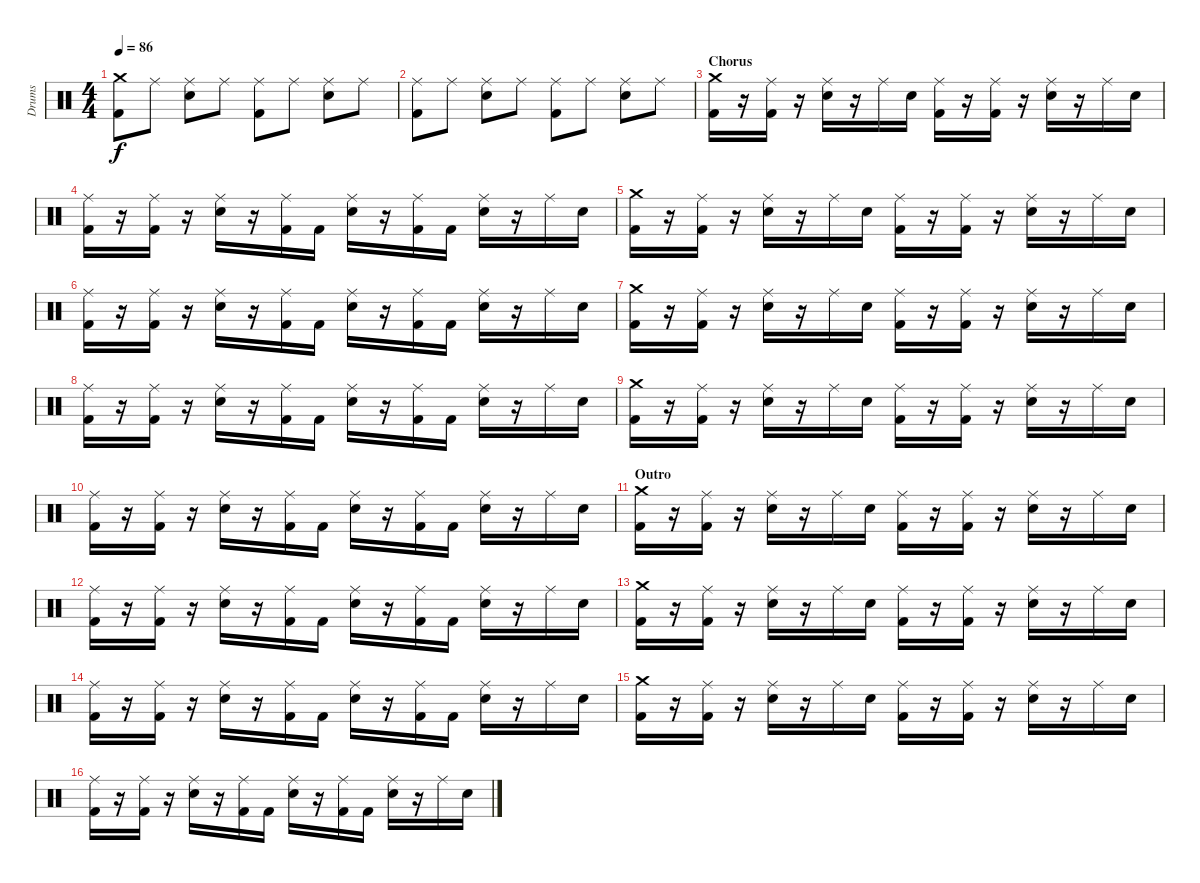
\track ("Drums" "Drums") {instrument percussion}
\staff {score}
\articulation defaults
\ts (4 4)
\tempo 86
\clef neutral
\ks c
("Crash medium (hit)" "Kick (hit) 2").8{dy f} "Ride (middle)".8 ("Ride (middle)" "Snare (hit) 2").8 "Ride (middle)".8 ("Ride (middle)" "Kick (hit) 2").8 "Ride (middle)".8 ("Ride (middle)" "Snare (hit) 2").8 "Ride (middle)".8 |
("Ride (middle)" "Kick (hit) 2").8 "Ride (middle)".8 ("Ride (middle)" "Snare (hit) 2").8 "Ride (middle)".8 ("Ride (middle)" "Kick (hit) 2").8 "Ride (middle)".8 ("Ride (middle)" "Snare (hit) 2").8 "Ride (middle)".8 |
\section ("" "Chorus")
("Crash medium (hit)" "Kick (hit) 2").16 r.16 ("Ride (middle)" "Kick (hit) 2").16 r.16 ("Ride (middle)" "Snare (hit) 2").16 r.16 "Ride (middle)".16 "Snare (hit) 2".16 ("Ride (middle)" "Kick (hit) 2").16 r.16 ("Ride (middle)" "Kick (hit) 2").16 r.16 ("Ride (middle)" "Snare (hit) 2").16 r.16 "Ride (middle)".16 "Snare (hit) 2".16 |
("Ride (middle)" "Kick (hit) 2").16 r.16 ("Ride (middle)" "Kick (hit) 2").16 r.16 ("Ride (middle)" "Snare (hit) 2").16 r.16 ("Ride (middle)" "Kick (hit) 2").16 "Kick (hit) 2".16 ("Ride (middle)" "Snare (hit) 2").16 r.16 ("Ride (middle)" "Kick (hit) 2").16 "Kick (hit) 2".16 ("Ride (middle)" "Snare (hit) 2").16 r.16 "Ride (middle)".16 "Snare (hit) 2".16 |
("Crash medium (hit)" "Kick (hit) 2").16 r.16 ("Ride (middle)" "Kick (hit) 2").16 r.16 ("Ride (middle)" "Snare (hit) 2").16 r.16 "Ride (middle)".16 "Snare (hit) 2".16 ("Ride (middle)" "Kick (hit) 2").16 r.16 ("Ride (middle)" "Kick (hit) 2").16 r.16 ("Ride (middle)" "Snare (hit) 2").16 r.16 "Ride (middle)".16 "Snare (hit) 2".16 |
("Ride (middle)" "Kick (hit) 2").16 r.16 ("Ride (middle)" "Kick (hit) 2").16 r.16 ("Ride (middle)" "Snare (hit) 2").16 r.16 ("Ride (middle)" "Kick (hit) 2").16 "Kick (hit) 2".16 ("Ride (middle)" "Snare (hit) 2").16 r.16 ("Ride (middle)" "Kick (hit) 2").16 "Kick (hit) 2".16 ("Ride (middle)" "Snare (hit) 2").16 r.16 "Ride (middle)".16 "Snare (hit) 2".16 |
("Crash medium (hit)" "Kick (hit) 2").16 r.16 ("Ride (middle)" "Kick (hit) 2").16 r.16 ("Ride (middle)" "Snare (hit) 2").16 r.16 "Ride (middle)".16 "Snare (hit) 2".16 ("Ride (middle)" "Kick (hit) 2").16 r.16 ("Ride (middle)" "Kick (hit) 2").16 r.16 ("Ride (middle)" "Snare (hit) 2").16 r.16 "Ride (middle)".16 "Snare (hit) 2".16 |
("Ride (middle)" "Kick (hit) 2").16 r.16 ("Ride (middle)" "Kick (hit) 2").16 r.16 ("Ride (middle)" "Snare (hit) 2").16 r.16 ("Ride (middle)" "Kick (hit) 2").16 "Kick (hit) 2".16 ("Ride (middle)" "Snare (hit) 2").16 r.16 ("Ride (middle)" "Kick (hit) 2").16 "Kick (hit) 2".16 ("Ride (middle)" "Snare (hit) 2").16 r.16 "Ride (middle)".16 "Snare (hit) 2".16 |
("Crash medium (hit)" "Kick (hit) 2").16 r.16 ("Ride (middle)" "Kick (hit) 2").16 r.16 ("Ride (middle)" "Snare (hit) 2").16 r.16 "Ride (middle)".16 "Snare (hit) 2".16 ("Ride (middle)" "Kick (hit) 2").16 r.16 ("Ride (middle)" "Kick (hit) 2").16 r.16 ("Ride (middle)" "Snare (hit) 2").16 r.16 "Ride (middle)".16 "Snare (hit) 2".16 |
("Ride (middle)" "Kick (hit) 2").16 r.16 ("Ride (middle)" "Kick (hit) 2").16 r.16 ("Ride (middle)" "Snare (hit) 2").16 r.16 ("Ride (middle)" "Kick (hit) 2").16 "Kick (hit) 2".16 ("Ride (middle)" "Snare (hit) 2").16 r.16 ("Ride (middle)" "Kick (hit) 2").16 "Kick (hit) 2".16 ("Ride (middle)" "Snare (hit) 2").16 r.16 "Ride (middle)".16 "Snare (hit) 2".16 |
\section ("" "Outro")
("Crash medium (hit)" "Kick (hit) 2").16 r.16 ("Ride (middle)" "Kick (hit) 2").16 r.16 ("Ride (middle)" "Snare (hit) 2").16 r.16 "Ride (middle)".16 "Snare (hit) 2".16 ("Ride (middle)" "Kick (hit) 2").16 r.16 ("Ride (middle)" "Kick (hit) 2").16 r.16 ("Ride (middle)" "Snare (hit) 2").16 r.16 "Ride (middle)".16 "Snare (hit) 2".16 |
("Ride (middle)" "Kick (hit) 2").16 r.16 ("Ride (middle)" "Kick (hit) 2").16 r.16 ("Ride (middle)" "Snare (hit) 2").16 r.16 ("Ride (middle)" "Kick (hit) 2").16 "Kick (hit) 2".16 ("Ride (middle)" "Snare (hit) 2").16 r.16 ("Ride (middle)" "Kick (hit) 2").16 "Kick (hit) 2".16 ("Ride (middle)" "Snare (hit) 2").16 r.16 "Ride (middle)".16 "Snare (hit) 2".16 |
("Crash medium (hit)" "Kick (hit) 2").16 r.16 ("Ride (middle)" "Kick (hit) 2").16 r.16 ("Ride (middle)" "Snare (hit) 2").16 r.16 "Ride (middle)".16 "Snare (hit) 2".16 ("Ride (middle)" "Kick (hit) 2").16 r.16 ("Ride (middle)" "Kick (hit) 2").16 r.16 ("Ride (middle)" "Snare (hit) 2").16 r.16 "Ride (middle)".16 "Snare (hit) 2".16 |
("Ride (middle)" "Kick (hit) 2").16 r.16 ("Ride (middle)" "Kick (hit) 2").16 r.16 ("Ride (middle)" "Snare (hit) 2").16 r.16 ("Ride (middle)" "Kick (hit) 2").16 "Kick (hit) 2".16 ("Ride (middle)" "Snare (hit) 2").16 r.16 ("Ride (middle)" "Kick (hit) 2").16 "Kick (hit) 2".16 ("Ride (middle)" "Snare (hit) 2").16 r.16 "Ride (middle)".16 "Snare (hit) 2".16 |
("Crash medium (hit)" "Kick (hit) 2").16 r.16 ("Ride (middle)" "Kick (hit) 2").16 r.16 ("Ride (middle)" "Snare (hit) 2").16 r.16 "Ride (middle)".16 "Snare (hit) 2".16 ("Ride (middle)" "Kick (hit) 2").16 r.16 ("Ride (middle)" "Kick (hit) 2").16 r.16 ("Ride (middle)" "Snare (hit) 2").16 r.16 "Ride (middle)".16 "Snare (hit) 2".16 |
("Ride (middle)" "Kick (hit) 2").16 r.16 ("Ride (middle)" "Kick (hit) 2").16 r.16 ("Ride (middle)" "Snare (hit) 2").16 r.16 ("Ride (middle)" "Kick (hit) 2").16 "Kick (hit) 2".16 ("Ride (middle)" "Snare (hit) 2").16 r.16 ("Ride (middle)" "Kick (hit) 2").16 "Kick (hit) 2".16 ("Ride (middle)" "Snare (hit) 2").16 r.16 "Ride (middle)".16 "Snare (hit) 2".16
